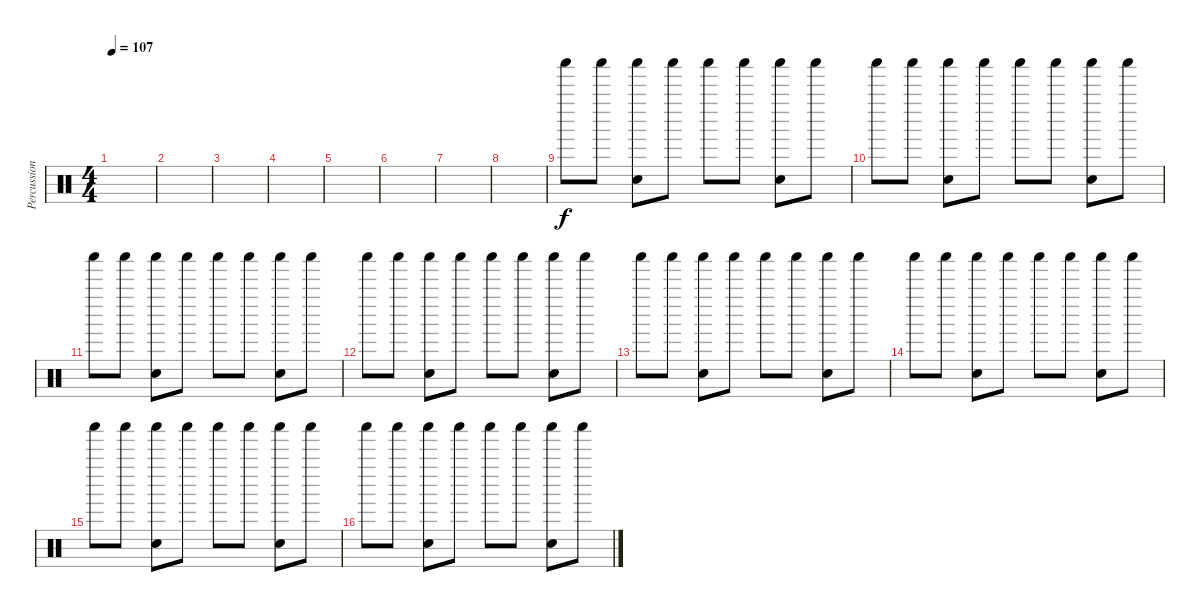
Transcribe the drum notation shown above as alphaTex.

\track ("Percussion" "Percussion") {instrument percussion}
\staff {score}
\articulation defaults
\ts (4 4)
\tempo 107
\clef neutral
\ks c
|
|
|
|
|
|
|
|
"Shaker (hit)".8 "Shaker (hit)".8 ("Shaker (hit)" "Snare (hit) 2").8 "Shaker (hit)".8 "Shaker (hit)".8 "Shaker (hit)".8 ("Shaker (hit)" "Snare (hit) 2").8 "Shaker (hit)".8 |
"Shaker (hit)".8 "Shaker (hit)".8 ("Shaker (hit)" "Snare (hit) 2").8 "Shaker (hit)".8 "Shaker (hit)".8 "Shaker (hit)".8 ("Shaker (hit)" "Snare (hit) 2").8 "Shaker (hit)".8 |
"Shaker (hit)".8 "Shaker (hit)".8 ("Shaker (hit)" "Snare (hit) 2").8 "Shaker (hit)".8 "Shaker (hit)".8 "Shaker (hit)".8 ("Shaker (hit)" "Snare (hit) 2").8 "Shaker (hit)".8 |
"Shaker (hit)".8 "Shaker (hit)".8 ("Shaker (hit)" "Snare (hit) 2").8 "Shaker (hit)".8 "Shaker (hit)".8 "Shaker (hit)".8 ("Shaker (hit)" "Snare (hit) 2").8 "Shaker (hit)".8 |
"Shaker (hit)".8 "Shaker (hit)".8 ("Shaker (hit)" "Snare (hit) 2").8 "Shaker (hit)".8 "Shaker (hit)".8 "Shaker (hit)".8 ("Shaker (hit)" "Snare (hit) 2").8 "Shaker (hit)".8 |
"Shaker (hit)".8 "Shaker (hit)".8 ("Shaker (hit)" "Snare (hit) 2").8 "Shaker (hit)".8 "Shaker (hit)".8 "Shaker (hit)".8 ("Shaker (hit)" "Snare (hit) 2").8 "Shaker (hit)".8 |
"Shaker (hit)".8 "Shaker (hit)".8 ("Shaker (hit)" "Snare (hit) 2").8 "Shaker (hit)".8 "Shaker (hit)".8 "Shaker (hit)".8 ("Shaker (hit)" "Snare (hit) 2").8 "Shaker (hit)".8 |
"Shaker (hit)".8 "Shaker (hit)".8 ("Shaker (hit)" "Snare (hit) 2").8 "Shaker (hit)".8 "Shaker (hit)".8 "Shaker (hit)".8 ("Shaker (hit)" "Snare (hit) 2").8 "Shaker (hit)".8
